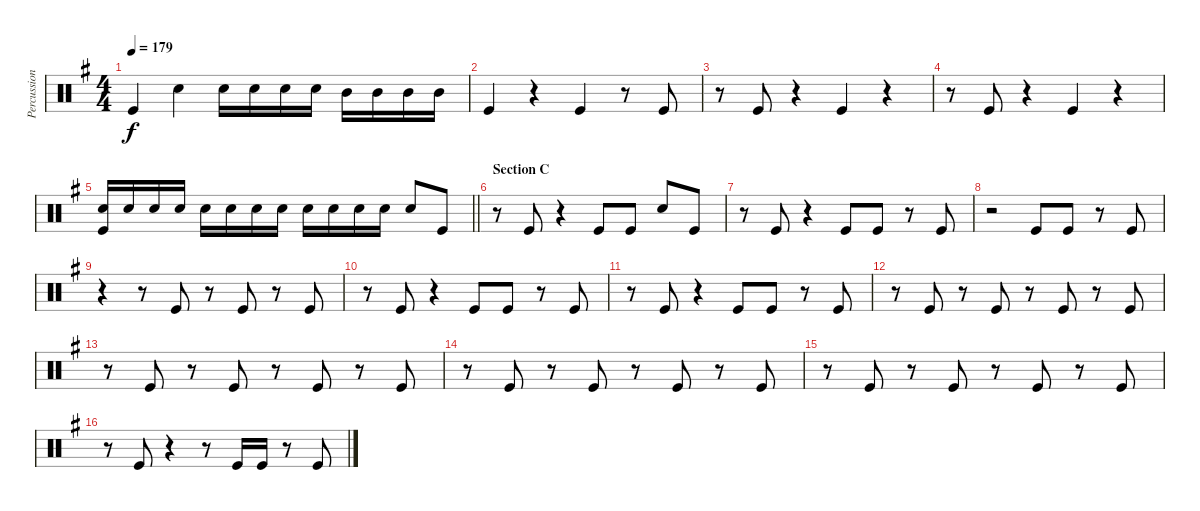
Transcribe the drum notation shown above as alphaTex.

\track ("Percussion 02" "Percussion") {instrument percussion}
\staff {score}
\articulation defaults
\ts (4 4)
\tempo 179
\clef neutral
\ks g "Kick (hit)".4{dy f} "Snare (hit) 2".4 "Snare (hit) 2".16 "Snare (hit) 2".16 "Snare (hit) 2".16 "Snare (hit) 2".16 "Mid Tom (hit)".16 "Mid Tom (hit)".16 "Mid Tom (hit)".16 "Mid Tom (hit)".16
|
"Kick (hit)".4 r.4 "Kick (hit)".4 r.8 "Kick (hit)".8 |
r.8 "Kick (hit)".8 r.4 "Kick (hit)".4 r.4 |
r.8 "Kick (hit)".8 r.4 "Kick (hit)".4 r.4 |
\barLineRight lightlight
("Snare (hit) 2" "Kick (hit)").16 "Snare (hit) 2".16 "Snare (hit) 2".16 "Snare (hit) 2".16 "Snare (hit) 2".16 "Snare (hit) 2".16 "Snare (hit) 2".16 "Snare (hit) 2".16 "Snare (hit) 2".16 "Snare (hit) 2".16 "Snare (hit) 2".16 "Snare (hit) 2".16 "Snare (hit) 2".8 "Kick (hit)".8 |
\section ("" "Section C")
r.8 "Kick (hit)".8 r.4 "Kick (hit)".8 "Kick (hit)".8 "Snare (hit) 2".8 "Kick (hit)".8 |
r.8 "Kick (hit)".8 r.4 "Kick (hit)".8 "Kick (hit)".8 r.8 "Kick (hit)".8 |
r.2 "Kick (hit)".8 "Kick (hit)".8 r.8 "Kick (hit)".8 |
r.4 r.8 "Kick (hit)".8 r.8 "Kick (hit)".8 r.8 "Kick (hit)".8 |
r.8 "Kick (hit)".8 r.4 "Kick (hit)".8 "Kick (hit)".8 r.8 "Kick (hit)".8 |
r.8 "Kick (hit)".8 r.4 "Kick (hit)".8 "Kick (hit)".8 r.8 "Kick (hit)".8 |
r.8 "Kick (hit)".8 r.8 "Kick (hit)".8 r.8 "Kick (hit)".8 r.8 "Kick (hit)".8 |
r.8 "Kick (hit)".8 r.8 "Kick (hit)".8 r.8 "Kick (hit)".8 r.8 "Kick (hit)".8 |
r.8 "Kick (hit)".8 r.8 "Kick (hit)".8 r.8 "Kick (hit)".8 r.8 "Kick (hit)".8 |
r.8 "Kick (hit)".8 r.8 "Kick (hit)".8 r.8 "Kick (hit)".8 r.8 "Kick (hit)".8 |
r.8 "Kick (hit)".8 r.4 r.8 "Kick (hit)".16 "Kick (hit)".16 r.8 "Kick (hit)".8
